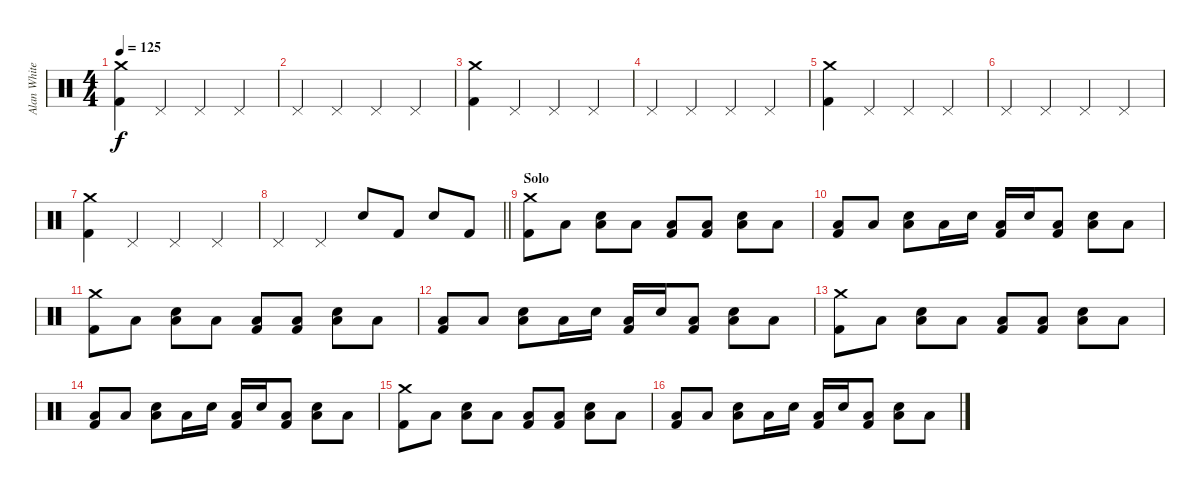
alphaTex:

\track ("Alan White" "Alan White") {instrument percussion}
\staff {score}
\articulation defaults
\ts (4 4)
\tempo 125
\clef neutral
\ks c
("Crash medium (hit)" "Kick (hit) 2").4{dy f} "Pedal Hi-Hat (hit)".4 "Pedal Hi-Hat (hit)".4 "Pedal Hi-Hat (hit)".4 |
"Pedal Hi-Hat (hit)".4 "Pedal Hi-Hat (hit)".4 "Pedal Hi-Hat (hit)".4 "Pedal Hi-Hat (hit)".4 |
("Crash medium (hit)" "Kick (hit) 2").4 "Pedal Hi-Hat (hit)".4 "Pedal Hi-Hat (hit)".4 "Pedal Hi-Hat (hit)".4 |
"Pedal Hi-Hat (hit)".4 "Pedal Hi-Hat (hit)".4 "Pedal Hi-Hat (hit)".4 "Pedal Hi-Hat (hit)".4 |
("Crash medium (hit)" "Kick (hit) 2").4 "Pedal Hi-Hat (hit)".4 "Pedal Hi-Hat (hit)".4 "Pedal Hi-Hat (hit)".4 |
"Pedal Hi-Hat (hit)".4 "Pedal Hi-Hat (hit)".4 "Pedal Hi-Hat (hit)".4 "Pedal Hi-Hat (hit)".4 |
("Crash medium (hit)" "Kick (hit) 2").4 "Pedal Hi-Hat (hit)".4 "Pedal Hi-Hat (hit)".4 "Pedal Hi-Hat (hit)".4 |
\barLineRight lightlight "Pedal Hi-Hat (hit)".4 "Pedal Hi-Hat (hit)".4 "Snare (hit) 2".8 "Kick (hit) 2".8 "Snare (hit) 2".8 "Kick (hit) 2".8
|
\section ("" "Solo")
("Crash medium (hit)" "Kick (hit) 2").8 "Low Floor Tom (hit)".8 ("Low Floor Tom (hit)" "Snare (hit) 2").8 "Low Floor Tom (hit)".8 ("Low Floor Tom (hit)" "Kick (hit) 2").8 ("Low Floor Tom (hit)" "Kick (hit) 2").8 ("Low Floor Tom (hit)" "Snare (hit) 2").8 "Low Floor Tom (hit)".8 |
("Low Floor Tom (hit)" "Kick (hit) 2").8 "Low Floor Tom (hit)".8 ("Low Floor Tom (hit)" "Snare (hit) 2").8 "Low Floor Tom (hit)".16 "Snare (hit) 2".16 ("Low Floor Tom (hit)" "Kick (hit) 2").16 "Snare (hit) 2".16 ("Low Floor Tom (hit)" "Kick (hit) 2").8 ("Low Floor Tom (hit)" "Snare (hit) 2").8 "Low Floor Tom (hit)".8 |
("Crash medium (hit)" "Kick (hit) 2").8 "Low Floor Tom (hit)".8 ("Low Floor Tom (hit)" "Snare (hit) 2").8 "Low Floor Tom (hit)".8 ("Low Floor Tom (hit)" "Kick (hit) 2").8 ("Low Floor Tom (hit)" "Kick (hit) 2").8 ("Low Floor Tom (hit)" "Snare (hit) 2").8 "Low Floor Tom (hit)".8 |
("Low Floor Tom (hit)" "Kick (hit) 2").8 "Low Floor Tom (hit)".8 ("Low Floor Tom (hit)" "Snare (hit) 2").8 "Low Floor Tom (hit)".16 "Snare (hit) 2".16 ("Low Floor Tom (hit)" "Kick (hit) 2").16 "Snare (hit) 2".16 ("Low Floor Tom (hit)" "Kick (hit) 2").8 ("Low Floor Tom (hit)" "Snare (hit) 2").8 "Low Floor Tom (hit)".8 |
("Crash medium (hit)" "Kick (hit) 2").8 "Low Floor Tom (hit)".8 ("Low Floor Tom (hit)" "Snare (hit) 2").8 "Low Floor Tom (hit)".8 ("Low Floor Tom (hit)" "Kick (hit) 2").8 ("Low Floor Tom (hit)" "Kick (hit) 2").8 ("Low Floor Tom (hit)" "Snare (hit) 2").8 "Low Floor Tom (hit)".8 |
("Low Floor Tom (hit)" "Kick (hit) 2").8 "Low Floor Tom (hit)".8 ("Low Floor Tom (hit)" "Snare (hit) 2").8 "Low Floor Tom (hit)".16 "Snare (hit) 2".16 ("Low Floor Tom (hit)" "Kick (hit) 2").16 "Snare (hit) 2".16 ("Low Floor Tom (hit)" "Kick (hit) 2").8 ("Low Floor Tom (hit)" "Snare (hit) 2").8 "Low Floor Tom (hit)".8 |
("Crash medium (hit)" "Kick (hit) 2").8 "Low Floor Tom (hit)".8 ("Low Floor Tom (hit)" "Snare (hit) 2").8 "Low Floor Tom (hit)".8 ("Low Floor Tom (hit)" "Kick (hit) 2").8 ("Low Floor Tom (hit)" "Kick (hit) 2").8 ("Low Floor Tom (hit)" "Snare (hit) 2").8 "Low Floor Tom (hit)".8 |
("Low Floor Tom (hit)" "Kick (hit) 2").8 "Low Floor Tom (hit)".8 ("Low Floor Tom (hit)" "Snare (hit) 2").8 "Low Floor Tom (hit)".16 "Snare (hit) 2".16 ("Low Floor Tom (hit)" "Kick (hit) 2").16 "Snare (hit) 2".16 ("Low Floor Tom (hit)" "Kick (hit) 2").8 ("Low Floor Tom (hit)" "Snare (hit) 2").8 "Low Floor Tom (hit)".8
